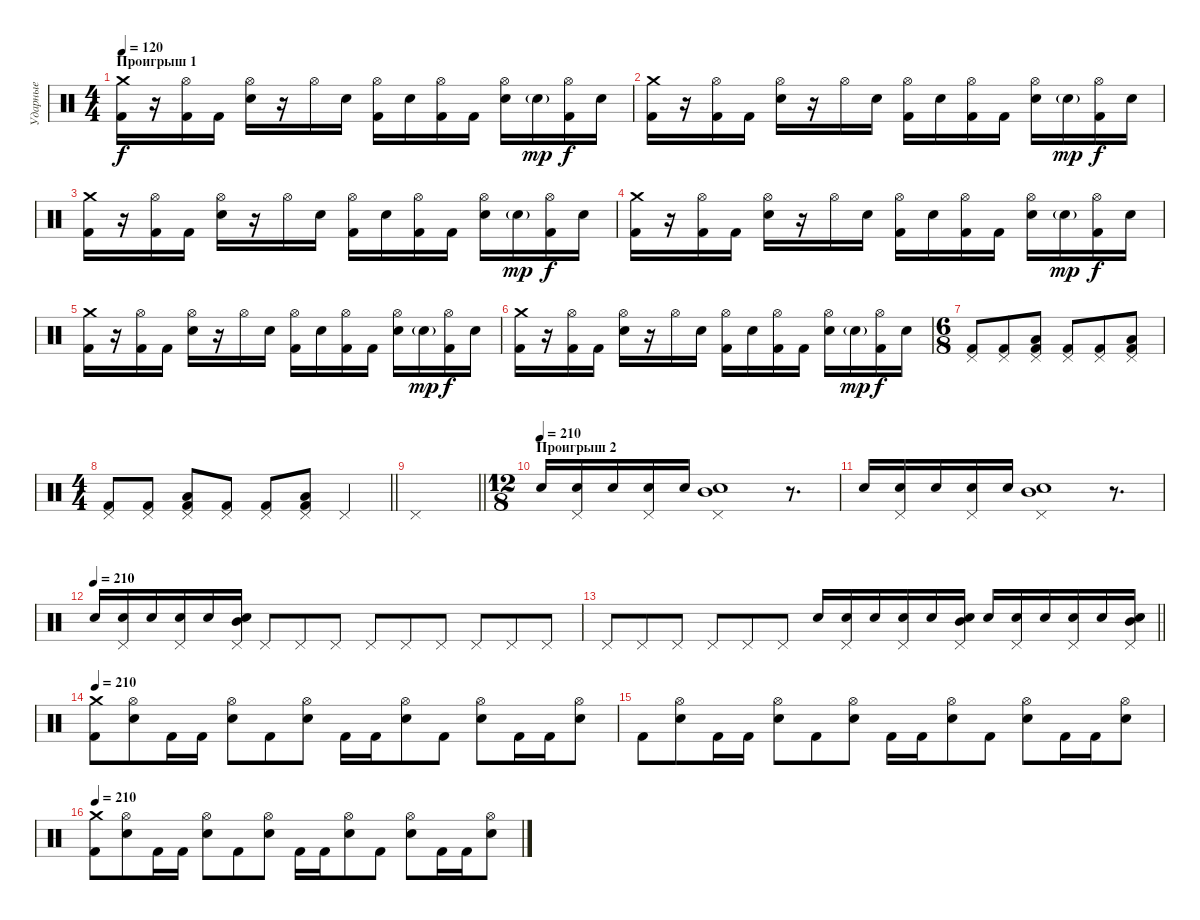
\track ("Ударные" "Ударные") {instrument percussion}
\staff {score}
\articulation defaults
\ts (4 4)
\section ("" "Проигрыш 1")
\tempo 120
\clef neutral
\ks c
("Kick (hit) 2" "Crash medium (hit)").16{dy f} r.16 ("Kick (hit) 2" "Hi-Hat (open)").16 "Kick (hit) 2".16 ("Electric Snare (hit)" "Hi-Hat (open)").16 r.16 "Hi-Hat (open)".16 "Electric Snare (hit)".16 ("Kick (hit) 2" "Hi-Hat (open)").16 "Electric Snare (hit)".16 ("Kick (hit) 2" "Hi-Hat (open)").16 "Kick (hit) 2".16 ("Electric Snare (hit)" "Hi-Hat (open)").16 "Electric Snare (hit)"{g}.16{dy mp} ("Kick (hit) 2" "Hi-Hat (open)").16{dy f} "Electric Snare (hit)".16 |
("Kick (hit) 2" "Crash medium (hit)").16 r.16 ("Kick (hit) 2" "Hi-Hat (open)").16 "Kick (hit) 2".16 ("Electric Snare (hit)" "Hi-Hat (open)").16 r.16 "Hi-Hat (open)".16 "Electric Snare (hit)".16 ("Kick (hit) 2" "Hi-Hat (open)").16 "Electric Snare (hit)".16 ("Kick (hit) 2" "Hi-Hat (open)").16 "Kick (hit) 2".16 ("Electric Snare (hit)" "Hi-Hat (open)").16 "Electric Snare (hit)"{g}.16{dy mp} ("Kick (hit) 2" "Hi-Hat (open)").16{dy f} "Electric Snare (hit)".16 |
("Kick (hit) 2" "Crash medium (hit)").16 r.16 ("Kick (hit) 2" "Hi-Hat (open)").16 "Kick (hit) 2".16 ("Electric Snare (hit)" "Hi-Hat (open)").16 r.16 "Hi-Hat (open)".16 "Electric Snare (hit)".16 ("Kick (hit) 2" "Hi-Hat (open)").16 "Electric Snare (hit)".16 ("Kick (hit) 2" "Hi-Hat (open)").16 "Kick (hit) 2".16 ("Electric Snare (hit)" "Hi-Hat (open)").16 "Electric Snare (hit)"{g}.16{dy mp} ("Kick (hit) 2" "Hi-Hat (open)").16{dy f} "Electric Snare (hit)".16 |
("Kick (hit) 2" "Crash medium (hit)").16 r.16 ("Kick (hit) 2" "Hi-Hat (open)").16 "Kick (hit) 2".16 ("Electric Snare (hit)" "Hi-Hat (open)").16 r.16 "Hi-Hat (open)".16 "Electric Snare (hit)".16 ("Kick (hit) 2" "Hi-Hat (open)").16 "Electric Snare (hit)".16 ("Kick (hit) 2" "Hi-Hat (open)").16 "Kick (hit) 2".16 ("Electric Snare (hit)" "Hi-Hat (open)").16 "Electric Snare (hit)"{g}.16{dy mp} ("Kick (hit) 2" "Hi-Hat (open)").16{dy f} "Electric Snare (hit)".16 |
("Kick (hit) 2" "Crash medium (hit)").16 r.16 ("Kick (hit) 2" "Hi-Hat (open)").16 "Kick (hit) 2".16 ("Electric Snare (hit)" "Hi-Hat (open)").16 r.16 "Hi-Hat (open)".16 "Electric Snare (hit)".16 ("Kick (hit) 2" "Hi-Hat (open)").16 "Electric Snare (hit)".16 ("Kick (hit) 2" "Hi-Hat (open)").16 "Kick (hit) 2".16 ("Electric Snare (hit)" "Hi-Hat (open)").16 "Electric Snare (hit)"{g}.16{dy mp} ("Kick (hit) 2" "Hi-Hat (open)").16{dy f} "Electric Snare (hit)".16 |
("Kick (hit) 2" "Crash medium (hit)").16 r.16 ("Kick (hit) 2" "Hi-Hat (open)").16 "Kick (hit) 2".16 ("Electric Snare (hit)" "Hi-Hat (open)").16 r.16 "Hi-Hat (open)".16 "Electric Snare (hit)".16 ("Kick (hit) 2" "Hi-Hat (open)").16 "Electric Snare (hit)".16 ("Kick (hit) 2" "Hi-Hat (open)").16 "Kick (hit) 2".16 ("Electric Snare (hit)" "Hi-Hat (open)").16 "Electric Snare (hit)"{g}.16{dy mp} ("Kick (hit) 2" "Hi-Hat (open)").16{dy f} "Electric Snare (hit)".16 |
\ts (6 8)
("Pedal Hi-Hat (hit)" "Kick (hit) 2").8 ("Pedal Hi-Hat (hit)" "Kick (hit) 2").8 ("Pedal Hi-Hat (hit)" "Kick (hit) 2" "Low Floor Tom (hit)").8 ("Pedal Hi-Hat (hit)" "Kick (hit) 2").8 ("Pedal Hi-Hat (hit)" "Kick (hit) 2").8 ("Pedal Hi-Hat (hit)" "Kick (hit) 2" "Low Floor Tom (hit)").8 |
\ts (4 4)
\barLineRight lightlight
("Pedal Hi-Hat (hit)" "Kick (hit) 2").8 ("Pedal Hi-Hat (hit)" "Kick (hit) 2").8 ("Pedal Hi-Hat (hit)" "Kick (hit) 2" "Low Floor Tom (hit)").8 ("Pedal Hi-Hat (hit)" "Kick (hit) 2").8 ("Pedal Hi-Hat (hit)" "Kick (hit) 2").8 ("Pedal Hi-Hat (hit)" "Kick (hit) 2" "Low Floor Tom (hit)").8 "Pedal Hi-Hat (hit)".4 |
\barLineRight lightlight "Pedal Hi-Hat (hit)".1
|
\ts (12 8)
\section ("" "Проигрыш 2")
\tempo (210)
"Electric Snare (hit)".16 ("Pedal Hi-Hat (hit)" "Electric Snare (hit)").16 "Electric Snare (hit)".16 ("Pedal Hi-Hat (hit)" "Electric Snare (hit)").16 "Electric Snare (hit)".16 ("Pedal Hi-Hat (hit)" "Electric Snare (hit)" "Mid Tom (hit)").1 r.8{d} |
"Electric Snare (hit)".16 ("Pedal Hi-Hat (hit)" "Electric Snare (hit)").16 "Electric Snare (hit)".16 ("Pedal Hi-Hat (hit)" "Electric Snare (hit)").16 "Electric Snare (hit)".16 ("Pedal Hi-Hat (hit)" "Electric Snare (hit)" "Mid Tom (hit)").1 r.8{d} |
\tempo (210)
"Electric Snare (hit)".16 ("Pedal Hi-Hat (hit)" "Electric Snare (hit)").16 "Electric Snare (hit)".16 ("Pedal Hi-Hat (hit)" "Electric Snare (hit)").16 "Electric Snare (hit)".16 ("Pedal Hi-Hat (hit)" "Electric Snare (hit)" "Mid Tom (hit)").16 "Pedal Hi-Hat (hit)".8 "Pedal Hi-Hat (hit)".8 "Pedal Hi-Hat (hit)".8 "Pedal Hi-Hat (hit)".8 "Pedal Hi-Hat (hit)".8 "Pedal Hi-Hat (hit)".8 "Pedal Hi-Hat (hit)".8 "Pedal Hi-Hat (hit)".8 "Pedal Hi-Hat (hit)".8 |
\barLineRight lightlight "Pedal Hi-Hat (hit)".8 "Pedal Hi-Hat (hit)".8 "Pedal Hi-Hat (hit)".8 "Pedal Hi-Hat (hit)".8 "Pedal Hi-Hat (hit)".8 "Pedal Hi-Hat (hit)".8 "Electric Snare (hit)".16
("Pedal Hi-Hat (hit)" "Electric Snare (hit)").16 "Electric Snare (hit)".16 ("Pedal Hi-Hat (hit)" "Electric Snare (hit)").16 "Electric Snare (hit)".16 ("Pedal Hi-Hat (hit)" "Electric Snare (hit)" "Mid Tom (hit)").16 "Electric Snare (hit)".16 ("Pedal Hi-Hat (hit)" "Electric Snare (hit)").16 "Electric Snare (hit)".16 ("Pedal Hi-Hat (hit)" "Electric Snare (hit)").16 "Electric Snare (hit)".16 ("Pedal Hi-Hat (hit)" "Electric Snare (hit)" "Mid Tom (hit)").16 |
\tempo 210
("Kick (hit) 2" "Crash medium (hit)").8 ("Electric Snare (hit)" "Hi-Hat (open)").8 "Kick (hit) 2".16 "Kick (hit) 2".16 ("Electric Snare (hit)" "Hi-Hat (open)").8 "Kick (hit) 2".8 ("Electric Snare (hit)" "Hi-Hat (open)").8 "Kick (hit) 2".16 "Kick (hit) 2".16 ("Electric Snare (hit)" "Hi-Hat (open)").8 "Kick (hit) 2".8 ("Electric Snare (hit)" "Hi-Hat (open)").8 "Kick (hit) 2".16 "Kick (hit) 2".16 ("Electric Snare (hit)" "Hi-Hat (open)").8 |
"Kick (hit) 2".8 ("Electric Snare (hit)" "Hi-Hat (open)").8 "Kick (hit) 2".16 "Kick (hit) 2".16 ("Electric Snare (hit)" "Hi-Hat (open)").8 "Kick (hit) 2".8 ("Electric Snare (hit)" "Hi-Hat (open)").8 "Kick (hit) 2".16 "Kick (hit) 2".16 ("Electric Snare (hit)" "Hi-Hat (open)").8 "Kick (hit) 2".8 ("Electric Snare (hit)" "Hi-Hat (open)").8 "Kick (hit) 2".16 "Kick (hit) 2".16 ("Electric Snare (hit)" "Hi-Hat (open)").8 |
\tempo 210
("Kick (hit) 2" "Crash medium (hit)").8 ("Electric Snare (hit)" "Hi-Hat (open)").8 "Kick (hit) 2".16 "Kick (hit) 2".16 ("Electric Snare (hit)" "Hi-Hat (open)").8 "Kick (hit) 2".8 ("Electric Snare (hit)" "Hi-Hat (open)").8 "Kick (hit) 2".16 "Kick (hit) 2".16 ("Electric Snare (hit)" "Hi-Hat (open)").8 "Kick (hit) 2".8 ("Electric Snare (hit)" "Hi-Hat (open)").8 "Kick (hit) 2".16 "Kick (hit) 2".16 ("Electric Snare (hit)" "Hi-Hat (open)").8
